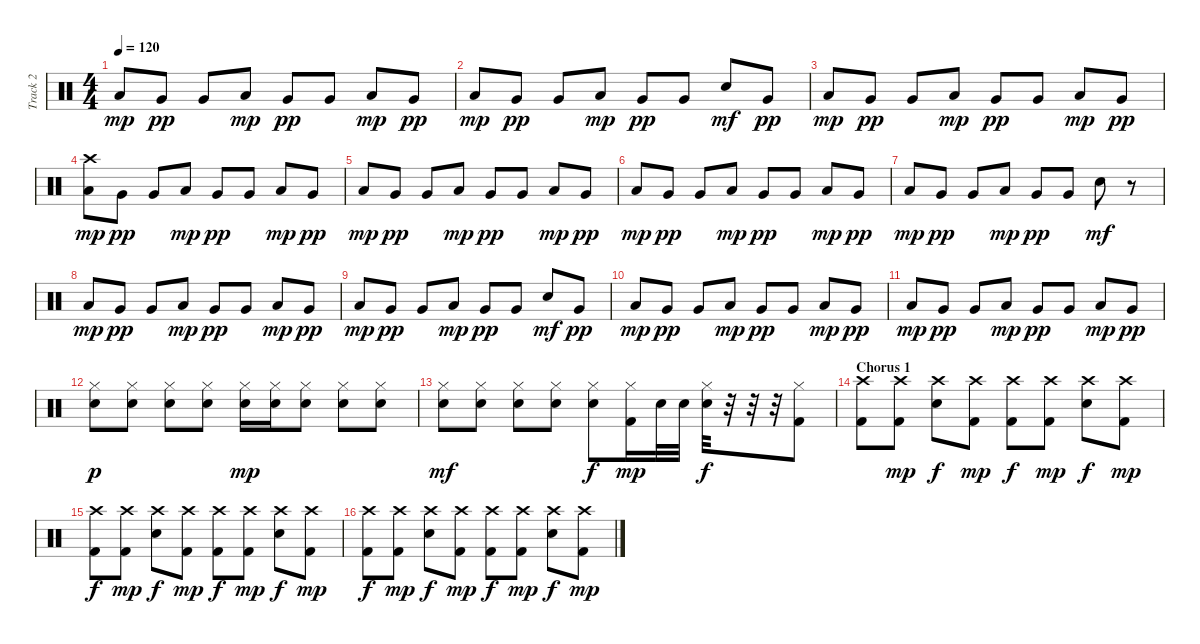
\track ("Track 2" "Track 2") {instrument percussion}
\staff {score}
\articulation defaults
\ts (4 4)
\tempo 120
\clef neutral
\ks c "Low Tom (hit)".8{dy mp} "Very Low Tom (hit)".8{dy pp} "Very Low Tom (hit)".8 "Low Tom (hit)".8{dy mp} "Very Low Tom (hit)".8{dy pp} "Very Low Tom (hit)".8 "Low Tom (hit)".8{dy mp} "Very Low Tom (hit)".8{dy pp}
|
"Low Tom (hit)".8{dy mp} "Very Low Tom (hit)".8{dy pp} "Very Low Tom (hit)".8 "Low Tom (hit)".8{dy mp} "Very Low Tom (hit)".8{dy pp} "Very Low Tom (hit)".8 "Electric Snare (hit)".8{dy mf} "Very Low Tom (hit)".8{dy pp} |
"Low Tom (hit)".8{dy mp} "Very Low Tom (hit)".8{dy pp} "Very Low Tom (hit)".8 "Low Tom (hit)".8{dy mp} "Very Low Tom (hit)".8{dy pp} "Very Low Tom (hit)".8 "Low Tom (hit)".8{dy mp} "Very Low Tom (hit)".8{dy pp} |
("Low Tom (hit)" "Crash high (hit)").8{dy mp} "Very Low Tom (hit)".8{dy pp} "Very Low Tom (hit)".8 "Low Tom (hit)".8{dy mp} "Very Low Tom (hit)".8{dy pp} "Very Low Tom (hit)".8 "Low Tom (hit)".8{dy mp} "Very Low Tom (hit)".8{dy pp} |
"Low Tom (hit)".8{dy mp} "Very Low Tom (hit)".8{dy pp} "Very Low Tom (hit)".8 "Low Tom (hit)".8{dy mp} "Very Low Tom (hit)".8{dy pp} "Very Low Tom (hit)".8 "Low Tom (hit)".8{dy mp} "Very Low Tom (hit)".8{dy pp} |
"Low Tom (hit)".8{dy mp} "Very Low Tom (hit)".8{dy pp} "Very Low Tom (hit)".8 "Low Tom (hit)".8{dy mp} "Very Low Tom (hit)".8{dy pp} "Very Low Tom (hit)".8 "Low Tom (hit)".8{dy mp} "Very Low Tom (hit)".8{dy pp} |
"Low Tom (hit)".8{dy mp} "Very Low Tom (hit)".8{dy pp} "Very Low Tom (hit)".8 "Low Tom (hit)".8{dy mp} "Very Low Tom (hit)".8{dy pp} "Very Low Tom (hit)".8 "Electric Snare (hit)".8{dy mf} r.8 |
"Low Tom (hit)".8{dy mp} "Very Low Tom (hit)".8{dy pp} "Very Low Tom (hit)".8 "Low Tom (hit)".8{dy mp} "Very Low Tom (hit)".8{dy pp} "Very Low Tom (hit)".8 "Low Tom (hit)".8{dy mp} "Very Low Tom (hit)".8{dy pp} |
"Low Tom (hit)".8{dy mp} "Very Low Tom (hit)".8{dy pp} "Very Low Tom (hit)".8 "Low Tom (hit)".8{dy mp} "Very Low Tom (hit)".8{dy pp} "Very Low Tom (hit)".8 "Electric Snare (hit)".8{dy mf} "Very Low Tom (hit)".8{dy pp} |
"Low Tom (hit)".8{dy mp} "Very Low Tom (hit)".8{dy pp} "Very Low Tom (hit)".8 "Low Tom (hit)".8{dy mp} "Very Low Tom (hit)".8{dy pp} "Very Low Tom (hit)".8 "Low Tom (hit)".8{dy mp} "Very Low Tom (hit)".8{dy pp} |
"Low Tom (hit)".8{dy mp} "Very Low Tom (hit)".8{dy pp} "Very Low Tom (hit)".8 "Low Tom (hit)".8{dy mp} "Very Low Tom (hit)".8{dy pp} "Very Low Tom (hit)".8 "Low Tom (hit)".8{dy mp} "Very Low Tom (hit)".8{dy pp} |
("Hi-Hat (closed)" "Electric Snare (hit)").8{dy p} ("Hi-Hat (closed)" "Electric Snare (hit)").8 ("Hi-Hat (closed)" "Electric Snare (hit)").8 ("Hi-Hat (closed)" "Electric Snare (hit)").8 ("Hi-Hat (closed)" "Electric Snare (hit)").16{dy mp} ("Hi-Hat (closed)" "Electric Snare (hit)").16 ("Hi-Hat (closed)" "Electric Snare (hit)").8 ("Hi-Hat (closed)" "Electric Snare (hit)").8 ("Hi-Hat (closed)" "Electric Snare (hit)").8 |
("Hi-Hat (closed)" "Electric Snare (hit)").8{dy mf} ("Hi-Hat (closed)" "Electric Snare (hit)").8 ("Hi-Hat (closed)" "Electric Snare (hit)").8 ("Hi-Hat (closed)" "Electric Snare (hit)").8 ("Hi-Hat (closed)" "Electric Snare (hit)").8{dy f} ("Hi-Hat (closed)" "Kick (hit) 2").16{dy mp} "Electric Snare (hit)".32 "Electric Snare (hit)".32 ("Hi-Hat (closed)" "Electric Snare (hit)").32{dy f} r.32 r.32 r.32 ("Hi-Hat (closed)" "Kick (hit) 2").8 |
\section ("" "Chorus 1")
("Crash high (hit)" "Kick (hit) 2").8 ("Crash high (hit)" "Kick (hit) 2").8{dy mp} ("Crash high (hit)" "Electric Snare (hit)").8{dy f} ("Crash high (hit)" "Kick (hit) 2").8{dy mp} ("Crash high (hit)" "Kick (hit) 2").8{dy f} ("Crash high (hit)" "Kick (hit) 2").8{dy mp} ("Crash high (hit)" "Electric Snare (hit)").8{dy f} ("Crash high (hit)" "Kick (hit) 2").8{dy mp} |
("Crash high (hit)" "Kick (hit) 2").8{dy f} ("Crash high (hit)" "Kick (hit) 2").8{dy mp} ("Crash high (hit)" "Electric Snare (hit)").8{dy f} ("Crash high (hit)" "Kick (hit) 2").8{dy mp} ("Crash high (hit)" "Kick (hit) 2").8{dy f} ("Crash high (hit)" "Kick (hit) 2").8{dy mp} ("Crash high (hit)" "Electric Snare (hit)").8{dy f} ("Crash high (hit)" "Kick (hit) 2").8{dy mp} |
("Crash high (hit)" "Kick (hit) 2").8{dy f} ("Crash high (hit)" "Kick (hit) 2").8{dy mp} ("Crash high (hit)" "Electric Snare (hit)").8{dy f} ("Crash high (hit)" "Kick (hit) 2").8{dy mp} ("Crash high (hit)" "Kick (hit) 2").8{dy f} ("Crash high (hit)" "Kick (hit) 2").8{dy mp} ("Crash high (hit)" "Electric Snare (hit)").8{dy f} ("Crash high (hit)" "Kick (hit) 2").8{dy mp}
